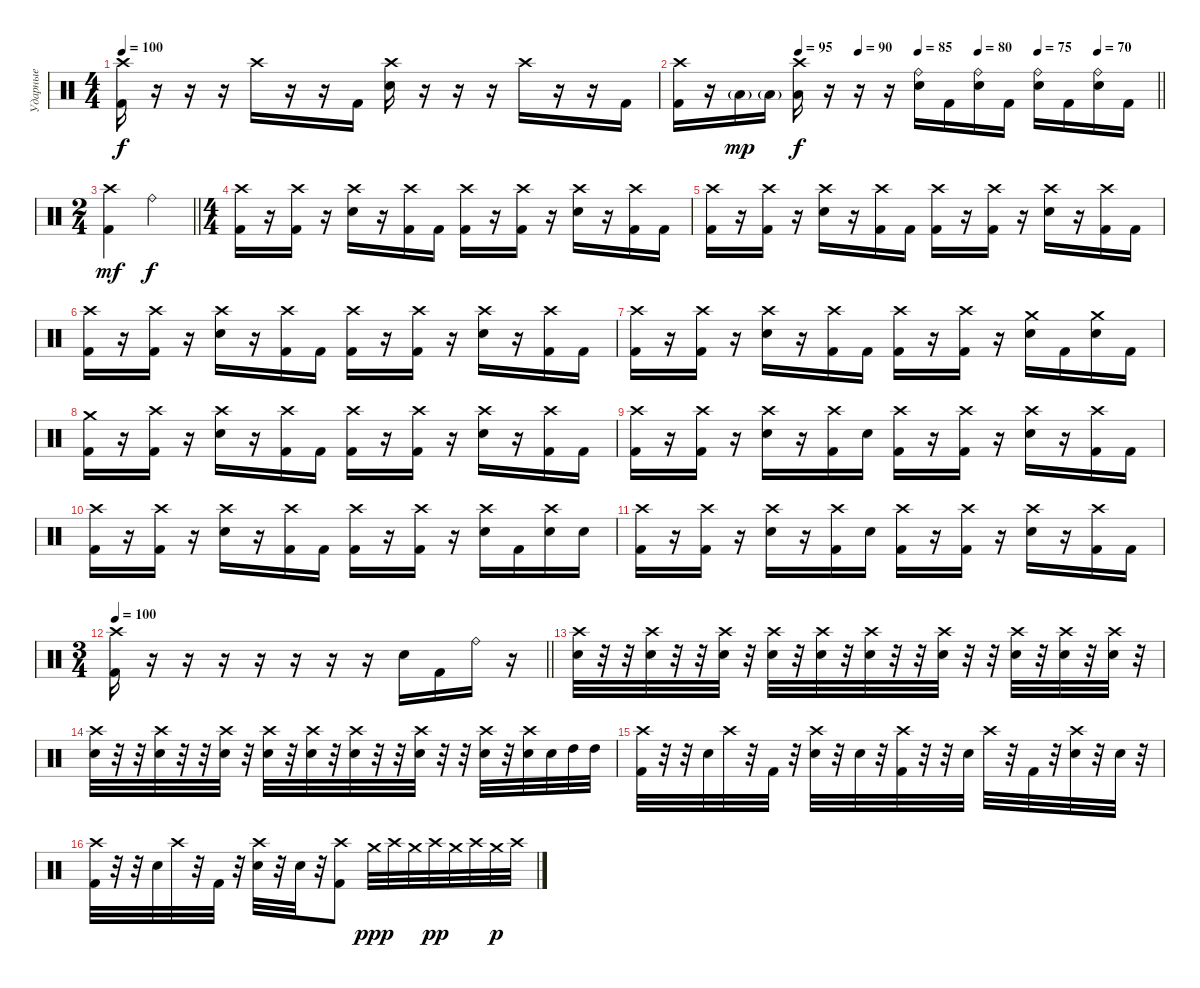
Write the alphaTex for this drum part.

\track ("Ударные" "Ударные") {instrument percussion}
\staff {score}
\articulation defaults
\ts (4 4)
\tempo 100
\clef neutral
\ks c
("Crash high (hit)" "Kick (hit) 2").16{dy f} r.16 r.16 r.16 "Crash high (hit)".16 r.16 r.16 "Kick (hit) 2".16 ("Crash high (hit)" "Electric Snare (hit)").16 r.16 r.16 r.16 "Crash high (hit)".16 r.16 r.16 "Kick (hit) 2".16 |
\tempo (95 0.25)
\tempo (90 0.375)
\tempo (85 0.5)
\tempo (80 0.625)
\tempo (75 0.75)
\tempo (70 0.875)
\barLineRight lightlight
("Crash high (hit)" "Kick (hit) 2").16 r.16 "Low Tom (hit)"{g}.16{dy mp} "Low Tom (hit)"{g}.16 ("Crash high (hit)" "Low Floor Tom (hit)").16{dy f} r.16 r.16 r.16 ("Ride (bell)" "Electric Snare (hit)").16 "Kick (hit) 2".16 ("Ride (bell)" "Electric Snare (hit)").16 "Kick (hit) 2".16 ("Ride (bell)" "Electric Snare (hit)").16 "Kick (hit) 2".16 ("Ride (bell)" "Electric Snare (hit)").16 "Kick (hit) 2".16 |
\ts (2 4)
\barLineRight lightlight
("Crash high (hit)" "Kick (hit) 2").4{dy mf} "Ride (bell)".4{dy f} |
\ts (4 4)
\section ("" "")
("Crash high (hit)" "Kick (hit) 2").16 r.16 ("Crash high (hit)" "Kick (hit) 2").16 r.16 ("Crash high (hit)" "Electric Snare (hit)").16 r.16 ("Crash high (hit)" "Kick (hit) 2").16 "Kick (hit) 2".16 ("Crash high (hit)" "Kick (hit) 2").16 r.16 ("Crash high (hit)" "Kick (hit) 2").16 r.16 ("Crash high (hit)" "Electric Snare (hit)").16 r.16 ("Crash high (hit)" "Kick (hit) 2").16 "Kick (hit) 2".16 |
("Crash high (hit)" "Kick (hit) 2").16 r.16 ("Crash high (hit)" "Kick (hit) 2").16 r.16 ("Crash high (hit)" "Electric Snare (hit)").16 r.16 ("Crash high (hit)" "Kick (hit) 2").16 "Kick (hit) 2".16 ("Crash high (hit)" "Kick (hit) 2").16 r.16 ("Crash high (hit)" "Kick (hit) 2").16 r.16 ("Crash high (hit)" "Electric Snare (hit)").16 r.16 ("Crash high (hit)" "Kick (hit) 2").16 "Kick (hit) 2".16 |
("Crash high (hit)" "Kick (hit) 2").16 r.16 ("Crash high (hit)" "Kick (hit) 2").16 r.16 ("Crash high (hit)" "Electric Snare (hit)").16 r.16 ("Crash high (hit)" "Kick (hit) 2").16 "Kick (hit) 2".16 ("Crash high (hit)" "Kick (hit) 2").16 r.16 ("Crash high (hit)" "Kick (hit) 2").16 r.16 ("Crash high (hit)" "Electric Snare (hit)").16 r.16 ("Crash high (hit)" "Kick (hit) 2").16 "Kick (hit) 2".16 |
("Crash high (hit)" "Kick (hit) 2").16 r.16 ("Crash high (hit)" "Kick (hit) 2").16 r.16 ("Crash high (hit)" "Electric Snare (hit)").16 r.16 ("Crash high (hit)" "Kick (hit) 2").16 "Kick (hit) 2".16 ("Crash high (hit)" "Kick (hit) 2").16 r.16 ("Crash high (hit)" "Kick (hit) 2").16 r.16 ("Crash medium (hit)" "Electric Snare (hit)").16 "Kick (hit) 2".16 ("Crash medium (hit)" "Electric Snare (hit)").16 "Kick (hit) 2".16 |
("Crash medium (hit)" "Kick (hit) 2").16 r.16 ("Crash high (hit)" "Kick (hit) 2").16 r.16 ("Crash high (hit)" "Electric Snare (hit)").16 r.16 ("Crash high (hit)" "Kick (hit) 2").16 "Kick (hit) 2".16 ("Crash high (hit)" "Kick (hit) 2").16 r.16 ("Crash high (hit)" "Kick (hit) 2").16 r.16 ("Crash high (hit)" "Electric Snare (hit)").16 r.16 ("Crash high (hit)" "Kick (hit) 2").16 "Kick (hit) 2".16 |
("Crash high (hit)" "Kick (hit) 2").16 r.16 ("Crash high (hit)" "Kick (hit) 2").16 r.16 ("Crash high (hit)" "Electric Snare (hit)").16 r.16 ("Crash high (hit)" "Kick (hit) 2").16 "Electric Snare (hit)".16 ("Crash high (hit)" "Kick (hit) 2").16 r.16 ("Crash high (hit)" "Kick (hit) 2").16 r.16 ("Crash high (hit)" "Electric Snare (hit)").16 r.16 ("Crash high (hit)" "Kick (hit) 2").16 "Kick (hit) 2".16 |
("Crash high (hit)" "Kick (hit) 2").16 r.16 ("Crash high (hit)" "Kick (hit) 2").16 r.16 ("Crash high (hit)" "Electric Snare (hit)").16 r.16 ("Crash high (hit)" "Kick (hit) 2").16 "Kick (hit) 2".16 ("Crash high (hit)" "Kick (hit) 2").16 r.16 ("Crash high (hit)" "Kick (hit) 2").16 r.16 ("Crash high (hit)" "Electric Snare (hit)").16 "Kick (hit) 2".16 ("Crash high (hit)" "Electric Snare (hit)").16 "Electric Snare (hit)".16 |
("Crash high (hit)" "Kick (hit) 2").16 r.16 ("Crash high (hit)" "Kick (hit) 2").16 r.16 ("Crash high (hit)" "Electric Snare (hit)").16 r.16 ("Crash high (hit)" "Kick (hit) 2").16 "Electric Snare (hit)".16 ("Crash high (hit)" "Kick (hit) 2").16 r.16 ("Crash high (hit)" "Kick (hit) 2").16 r.16 ("Crash high (hit)" "Electric Snare (hit)").16 r.16 ("Crash high (hit)" "Kick (hit) 2").16 "Kick (hit) 2".16 |
\ts (3 4)
\tempo 100
\barLineRight lightlight
("Crash high (hit)" "Kick (hit) 2").16 r.16 r.16 r.16 r.16 r.16 r.16 r.16 "Electric Snare (hit)".16 "Kick (hit) 2".16 "Ride (bell)".16 r.16 |
\section ("" "")
("Crash high (hit)" "Electric Snare (hit)").32 r.32 r.32 ("Crash high (hit)" "Electric Snare (hit)").32 r.32 r.32 ("Crash high (hit)" "Electric Snare (hit)").32 r.32 ("Crash high (hit)" "Electric Snare (hit)").32 r.32 ("Crash high (hit)" "Electric Snare (hit)").32 r.32 ("Crash high (hit)" "Electric Snare (hit)").32 r.32 r.32 ("Crash high (hit)" "Electric Snare (hit)").32 r.32 r.32 ("Crash high (hit)" "Electric Snare (hit)").32 r.32 ("Crash high (hit)" "Electric Snare (hit)").32 r.32 ("Crash high (hit)" "Electric Snare (hit)").32 r.32 |
("Crash high (hit)" "Electric Snare (hit)").32 r.32 r.32 ("Crash high (hit)" "Electric Snare (hit)").32 r.32 r.32 ("Crash high (hit)" "Electric Snare (hit)").32 r.32 ("Crash high (hit)" "Electric Snare (hit)").32 r.32 ("Crash high (hit)" "Electric Snare (hit)").32 r.32 ("Crash high (hit)" "Electric Snare (hit)").32 r.32 r.32 ("Crash high (hit)" "Electric Snare (hit)").32 r.32 r.32 ("Crash high (hit)" "Electric Snare (hit)").32 r.32 ("Crash high (hit)" "Electric Snare (hit)").32 "Electric Snare (hit)".32 "High Tom (hit)".32 "High Tom (hit)".32 |
("Crash high (hit)" "Kick (hit) 2").32 r.32 r.32 "Electric Snare (hit)".32 "Crash high (hit)".32 r.32 "Kick (hit) 2".32 r.32 ("Crash high (hit)" "Electric Snare (hit)").32 r.32 "Electric Snare (hit)".32 r.32 ("Crash high (hit)" "Kick (hit) 2").32 r.32 r.32 "Electric Snare (hit)".32 "Crash high (hit)".32 r.32 "Kick (hit) 2".32 r.32 ("Crash high (hit)" "Electric Snare (hit)").32 r.32 "Electric Snare (hit)".32 r.32 |
("Crash high (hit)" "Kick (hit) 2").32 r.32 r.32 "Electric Snare (hit)".32 "Crash high (hit)".32 r.32 "Kick (hit) 2".32 r.32 ("Crash high (hit)" "Electric Snare (hit)").32 r.32 "Electric Snare (hit)".32 r.32 ("Crash high (hit)" "Kick (hit) 2").8 "Crash medium (hit)".32{dy ppp} "Crash high (hit)".32 "Crash medium (hit)".32 "Crash high (hit)".32{dy pp} "Crash medium (hit)".32 "Crash high (hit)".32 "Crash medium (hit)".32{dy p} "Crash high (hit)".32
